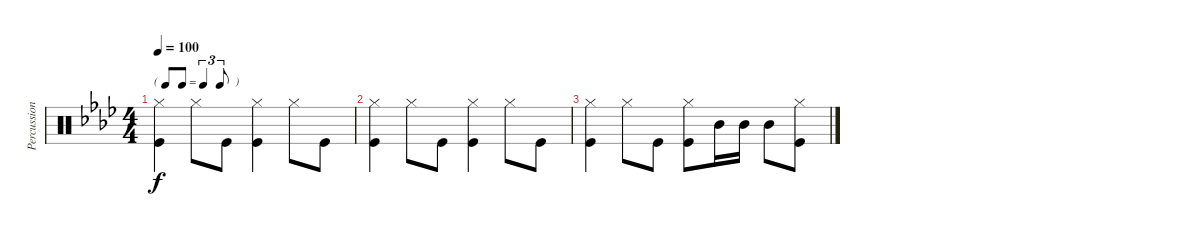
\track ("Percussion" "Percussion") {instrument percussion}
\staff {score}
\articulation defaults
\ts (4 4)
\tf triplet8th
\tempo 100
\clef neutral
\ks ab
("Hi-Hat (closed)" "Kick (hit)").4{dy f} "Hi-Hat (closed)".8 "Kick (hit)".8 ("Hi-Hat (closed)" "Kick (hit)").4 "Hi-Hat (closed)".8 "Kick (hit)".8 |
("Hi-Hat (closed)" "Kick (hit)").4 "Hi-Hat (closed)".8 "Kick (hit)".8 ("Hi-Hat (closed)" "Kick (hit)").4 "Hi-Hat (closed)".8 "Kick (hit)".8 |
("Hi-Hat (closed)" "Kick (hit)").4 "Hi-Hat (closed)".8 "Kick (hit)".8 ("Hi-Hat (closed)" "Kick (hit)").8 "Mid Tom (hit)".16 "Mid Tom (hit)".16 "Mid Tom (hit)".8 ("Hi-Hat (closed)" "Kick (hit)").8
